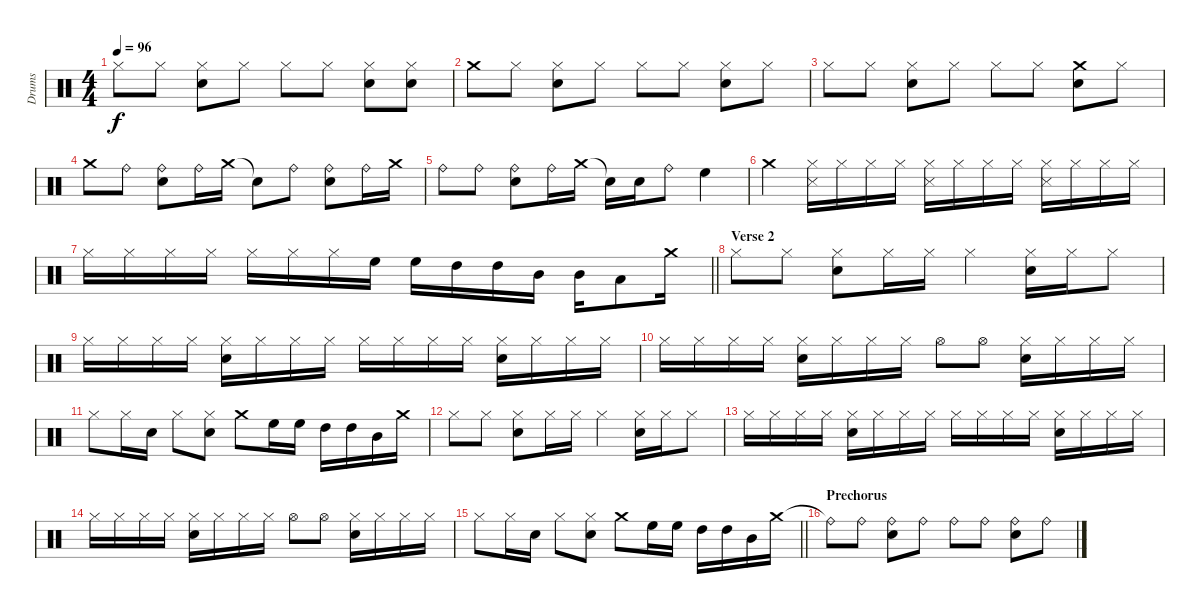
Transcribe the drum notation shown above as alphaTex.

\track ("Drums" "Drums") {instrument percussion}
\staff {score}
\articulation defaults
\ts (4 4)
\tempo 96
\clef neutral
\ks c "Hi-Hat (closed)".8{dy f} "Hi-Hat (closed)".8
("Hi-Hat (closed)" "Electric Snare (hit)").8 "Hi-Hat (closed)".8 "Hi-Hat (closed)".8 "Hi-Hat (closed)".8 ("Hi-Hat (closed)" "Electric Snare (hit)").8 ("Hi-Hat (closed)" "Electric Snare (hit)").8 |
"Crash medium (hit)".8 "Hi-Hat (closed)".8 ("Hi-Hat (closed)" "Electric Snare (hit)").8 "Hi-Hat (closed)".8 "Hi-Hat (closed)".8 "Hi-Hat (closed)".8 ("Hi-Hat (closed)" "Electric Snare (hit)").8 "Hi-Hat (closed)".8 |
"Hi-Hat (closed)".8 "Hi-Hat (closed)".8 ("Hi-Hat (closed)" "Electric Snare (hit)").8 "Hi-Hat (closed)".8 "Hi-Hat (closed)".8 "Hi-Hat (closed)".8 ("Crash medium (hit)" "Electric Snare (hit)").8 "Hi-Hat (closed)".8 |
"Crash medium (hit)".8 "Ride (bell)".8 ("Ride (bell)" "Electric Snare (hit)").8 "Ride (bell)".16 "Crash medium (hit)".16 "Snare (hit)"{t}.8 "Ride (bell)".8 ("Ride (bell)" "Electric Snare (hit)").8 "Ride (bell)".16 "Crash medium (hit)".16 |
"Ride (bell)".8 "Ride (bell)".8 ("Ride (bell)" "Electric Snare (hit)").8 "Ride (bell)".16 "Crash medium (hit)".16 "Snare (hit)"{t}.16 "Electric Snare (hit)".16 "Ride (bell)".8 "High Floor Tom (hit)".4 |
"Crash medium (hit)".4 ("Hi-Hat (closed)" "Snare (side stick) 3").16 "Hi-Hat (closed)".16 "Hi-Hat (closed)".16 "Hi-Hat (closed)".16 ("Hi-Hat (closed)" "Snare (side stick) 3").16 "Hi-Hat (closed)".16 "Hi-Hat (closed)".16 "Hi-Hat (closed)".16 ("Hi-Hat (closed)" "Snare (side stick) 3").16 "Hi-Hat (closed)".16 "Hi-Hat (closed)".16 "Hi-Hat (closed)".16 |
\barLineRight lightlight "Hi-Hat (closed)".16 "Hi-Hat (closed)".16 "Hi-Hat (closed)".16 "Hi-Hat (closed)".16 "Hi-Hat (closed)".16 "Hi-Hat (closed)".16 "Hi-Hat (closed)".16 "High Floor Tom (hit)".16 "High Floor Tom (hit)".16 "High Tom (hit)".16 "High Tom (hit)".16 "Mid Tom (hit)".16 "Mid Tom (hit)".16 "Low Tom (hit)".8 "Crash medium (hit)".16
|
\section ("" "Verse 2")
"Hi-Hat (closed)".8 "Hi-Hat (closed)".8 ("Hi-Hat (closed)" "Electric Snare (hit)").8 "Hi-Hat (closed)".16 "Hi-Hat (closed)".16 "Hi-Hat (closed)".4 ("Hi-Hat (closed)" "Electric Snare (hit)").16 "Hi-Hat (closed)".16 "Hi-Hat (closed)".8 |
"Hi-Hat (closed)".16 "Hi-Hat (closed)".16 "Hi-Hat (closed)".16 "Hi-Hat (closed)".16 ("Hi-Hat (closed)" "Electric Snare (hit)").16 "Hi-Hat (closed)".16 "Hi-Hat (closed)".16 "Hi-Hat (closed)".16 "Hi-Hat (closed)".16 "Hi-Hat (closed)".16 "Hi-Hat (closed)".16 "Hi-Hat (closed)".16 ("Hi-Hat (closed)" "Electric Snare (hit)").16 "Hi-Hat (closed)".16 "Hi-Hat (closed)".16 "Hi-Hat (closed)".16 |
"Hi-Hat (closed)".16 "Hi-Hat (closed)".16 "Hi-Hat (closed)".16 "Hi-Hat (closed)".16 ("Hi-Hat (closed)" "Electric Snare (hit)").16 "Hi-Hat (closed)".16 "Hi-Hat (closed)".16 "Hi-Hat (closed)".16 "Hi-Hat (open)".8 "Hi-Hat (open)".8 ("Hi-Hat (closed)" "Electric Snare (hit)").16 "Hi-Hat (closed)".16 "Hi-Hat (closed)".16 "Hi-Hat (closed)".16 |
"Hi-Hat (closed)".8 "Hi-Hat (closed)".16 "Electric Snare (hit)".16 "Hi-Hat (closed)".8 ("Hi-Hat (closed)" "Electric Snare (hit)").8 "Crash medium (hit)".8 "High Floor Tom (hit)".16 "High Floor Tom (hit)".16 "High Tom (hit)".16 "High Tom (hit)".16 "Mid Tom (hit)".16 "Crash medium (hit)".16 |
"Hi-Hat (closed)".8 "Hi-Hat (closed)".8 ("Hi-Hat (closed)" "Electric Snare (hit)").8 "Hi-Hat (closed)".16 "Hi-Hat (closed)".16 "Hi-Hat (closed)".4 ("Hi-Hat (closed)" "Electric Snare (hit)").16 "Hi-Hat (closed)".16 "Hi-Hat (closed)".8 |
"Hi-Hat (closed)".16 "Hi-Hat (closed)".16 "Hi-Hat (closed)".16 "Hi-Hat (closed)".16 ("Hi-Hat (closed)" "Electric Snare (hit)").16 "Hi-Hat (closed)".16 "Hi-Hat (closed)".16 "Hi-Hat (closed)".16 "Hi-Hat (closed)".16 "Hi-Hat (closed)".16 "Hi-Hat (closed)".16 "Hi-Hat (closed)".16 ("Hi-Hat (closed)" "Electric Snare (hit)").16 "Hi-Hat (closed)".16 "Hi-Hat (closed)".16 "Hi-Hat (closed)".16 |
"Hi-Hat (closed)".16 "Hi-Hat (closed)".16 "Hi-Hat (closed)".16 "Hi-Hat (closed)".16 ("Hi-Hat (closed)" "Electric Snare (hit)").16 "Hi-Hat (closed)".16 "Hi-Hat (closed)".16 "Hi-Hat (closed)".16 "Hi-Hat (open)".8 "Hi-Hat (open)".8 ("Hi-Hat (closed)" "Electric Snare (hit)").16 "Hi-Hat (closed)".16 "Hi-Hat (closed)".16 "Hi-Hat (closed)".16 |
\barLineRight lightlight "Hi-Hat (closed)".8 "Hi-Hat (closed)".16 "Electric Snare (hit)".16 "Hi-Hat (closed)".8
("Hi-Hat (closed)" "Electric Snare (hit)").8 "Crash medium (hit)".8 "High Floor Tom (hit)".16 "High Floor Tom (hit)".16 "High Tom (hit)".16 "High Tom (hit)".16 "Mid Tom (hit)".16 "Crash medium (hit)".16 |
\section ("" "Prechorus")
"Ride (bell)"{t}.8 "Ride (bell)".8 ("Ride (bell)" "Electric Snare (hit)").8 "Ride (bell)".8 "Ride (bell)".8 "Ride (bell)".8 ("Ride (bell)" "Electric Snare (hit)").8 "Ride (bell)".8
